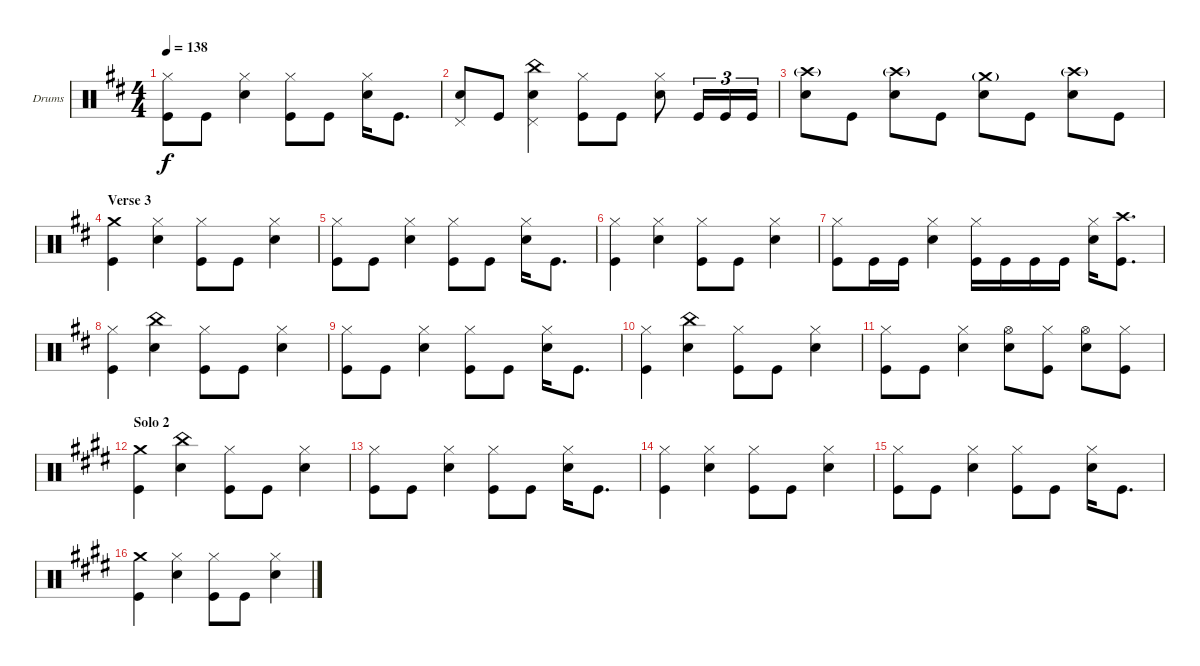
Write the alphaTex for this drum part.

\defaultSystemsLayout 4
\bracketExtendMode groupsimilarinstruments
\firstSystemTrackNameOrientation horizontal
\otherSystemsTrackNameOrientation horizontal
\track ("Drumkit" "Drums") {instrument percussion}
\staff {score}
\articulation defaults
\ts (4 4)
\tempo 138
\clef neutral
\ks d
("Hi-Hat (closed)" "Kick (hit)").8{dy f} "Kick (hit)".8 ("Snare (hit) 2" "Hi-Hat (closed)").4 ("Hi-Hat (closed)" "Kick (hit)").8 "Kick (hit)".8 ("Snare (hit) 2" "Hi-Hat (closed)").16 "Kick (hit)".8{d} |
("Snare (hit) 2" "Pedal Hi-Hat (hit)").8 "Kick (hit)".8 ("Snare (hit) 2" "China (hit)" "Pedal Hi-Hat (hit)").4 ("Hi-Hat (closed)" "Kick (hit)").8 "Kick (hit)".8 ("Snare (hit) 2" "Hi-Hat (closed)").8 "Kick (hit)".16{tu (3 2)} "Kick (hit)".16{tu (3 2)} "Kick (hit)".16{tu (3 2)} |
("Crash high (hit)"{g} "Snare (hit) 2").8 "Kick (hit)".8 ("Crash high (hit)"{g} "Snare (hit) 2").8 "Kick (hit)".8 ("Snare (hit) 2" "Crash medium (hit)"{g}).8 "Kick (hit)".8 ("Snare (hit) 2" "Crash high (hit)"{g}).8 "Kick (hit)".8 |
\section ("" "Verse 3")
("Kick (hit)" "Crash medium (hit)").4 ("Snare (hit) 2" "Hi-Hat (closed)").4 ("Hi-Hat (closed)" "Kick (hit)").8 "Kick (hit)".8 ("Snare (hit) 2" "Hi-Hat (closed)").4 |
("Hi-Hat (closed)" "Kick (hit)").8 "Kick (hit)".8 ("Snare (hit) 2" "Hi-Hat (closed)").4 ("Hi-Hat (closed)" "Kick (hit)").8 "Kick (hit)".8 ("Snare (hit) 2" "Hi-Hat (closed)").16 "Kick (hit)".8{d} |
("Kick (hit)" "Hi-Hat (closed)").4 ("Snare (hit) 2" "Hi-Hat (closed)").4 ("Hi-Hat (closed)" "Kick (hit)").8 "Kick (hit)".8 ("Snare (hit) 2" "Hi-Hat (closed)").4 |
("Hi-Hat (closed)" "Kick (hit)").8 "Kick (hit)".16 "Kick (hit)".16 ("Snare (hit) 2" "Hi-Hat (closed)").4 ("Hi-Hat (closed)" "Kick (hit)").16 "Kick (hit)".16 "Kick (hit)".16 "Kick (hit)".16 ("Snare (hit) 2" "Hi-Hat (closed)").16 ("Kick (hit)" "Crash high (hit)").8{d} |
("Kick (hit)" "Hi-Hat (closed)").4 ("Snare (hit) 2" "China (hit)").4 ("Hi-Hat (closed)" "Kick (hit)").8 "Kick (hit)".8 ("Snare (hit) 2" "Hi-Hat (closed)").4 |
("Hi-Hat (closed)" "Kick (hit)").8 "Kick (hit)".8 ("Snare (hit) 2" "Hi-Hat (closed)").4 ("Hi-Hat (closed)" "Kick (hit)").8 "Kick (hit)".8 ("Snare (hit) 2" "Hi-Hat (closed)").16 "Kick (hit)".8{d} |
("Kick (hit)" "Hi-Hat (closed)").4 ("Snare (hit) 2" "China (hit)").4 ("Hi-Hat (closed)" "Kick (hit)").8 "Kick (hit)".8 ("Snare (hit) 2" "Hi-Hat (closed)").4 |
("Hi-Hat (closed)" "Kick (hit)").8 "Kick (hit)".8 ("Snare (hit) 2" "Hi-Hat (closed)").4 ("Snare (hit) 2" "Hi-Hat (open)").8 ("Hi-Hat (closed)" "Kick (hit)").8 ("Snare (hit) 2" "Hi-Hat (open)").8 ("Hi-Hat (closed)" "Kick (hit)").8 |
\section ("" "Solo 2")
\ks e
("Kick (hit)" "Crash medium (hit)").4 ("Snare (hit) 2" "China (hit)").4 ("Hi-Hat (closed)" "Kick (hit)").8 "Kick (hit)".8 ("Snare (hit) 2" "Hi-Hat (closed)").4 |
("Hi-Hat (closed)" "Kick (hit)").8 "Kick (hit)".8 ("Snare (hit) 2" "Hi-Hat (closed)").4 ("Hi-Hat (closed)" "Kick (hit)").8 "Kick (hit)".8 ("Snare (hit) 2" "Hi-Hat (closed)").16 "Kick (hit)".8{d} |
("Kick (hit)" "Hi-Hat (closed)").4 ("Snare (hit) 2" "Hi-Hat (closed)").4 ("Hi-Hat (closed)" "Kick (hit)").8 "Kick (hit)".8 ("Snare (hit) 2" "Hi-Hat (closed)").4 |
("Hi-Hat (closed)" "Kick (hit)").8 "Kick (hit)".8 ("Snare (hit) 2" "Hi-Hat (closed)").4 ("Hi-Hat (closed)" "Kick (hit)").8 "Kick (hit)".8 ("Snare (hit) 2" "Hi-Hat (closed)").16 "Kick (hit)".8{d} |
("Kick (hit)" "Crash medium (hit)").4 ("Snare (hit) 2" "Hi-Hat (closed)").4 ("Hi-Hat (closed)" "Kick (hit)").8 "Kick (hit)".8 ("Snare (hit) 2" "Hi-Hat (closed)").4
